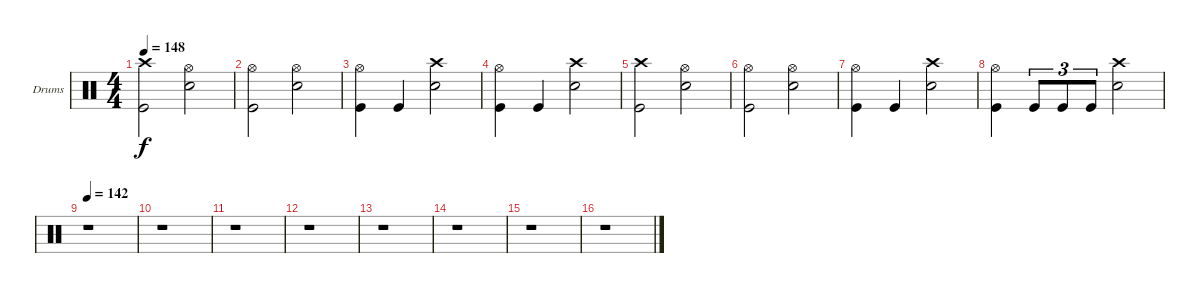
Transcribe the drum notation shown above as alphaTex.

\bracketExtendMode groupsimilarinstruments
\firstSystemTrackNameOrientation horizontal
\otherSystemsTrackNameOrientation horizontal
\track ("Drumkit" "Drums") {instrument percussion}
\staff {score}
\articulation defaults
\ts (4 4)
\tempo 148
\clef neutral
\ks c
("Crash high (hit)" "Kick (hit)").2{dy f} ("Hi-Hat (open)" "Snare (hit) 2").2 |
("Hi-Hat (open)" "Kick (hit)").2 ("Hi-Hat (open)" "Snare (hit) 2").2 |
("Hi-Hat (open)" "Kick (hit)").4 "Kick (hit)".4 ("Crash high (hit)" "Snare (hit) 2").2 |
("Hi-Hat (open)" "Kick (hit)").4 "Kick (hit)".4 ("Crash high (hit)" "Snare (hit) 2").2 |
("Crash high (hit)" "Kick (hit)").2 ("Hi-Hat (open)" "Snare (hit) 2").2 |
("Hi-Hat (open)" "Kick (hit)").2 ("Hi-Hat (open)" "Snare (hit) 2").2 |
("Hi-Hat (open)" "Kick (hit)").4 "Kick (hit)".4 ("Crash high (hit)" "Snare (hit) 2").2 |
("Hi-Hat (open)" "Kick (hit)").4 "Kick (hit)".8{tu (3 2)} "Kick (hit)".8{tu (3 2)} "Kick (hit)".8{tu (3 2)} ("Crash high (hit)" "Snare (hit) 2").2 |
\tempo 142
r.1 |
r.1 |
r.1 |
r.1 |
r.1 |
r.1 |
r.1 |
r.1
